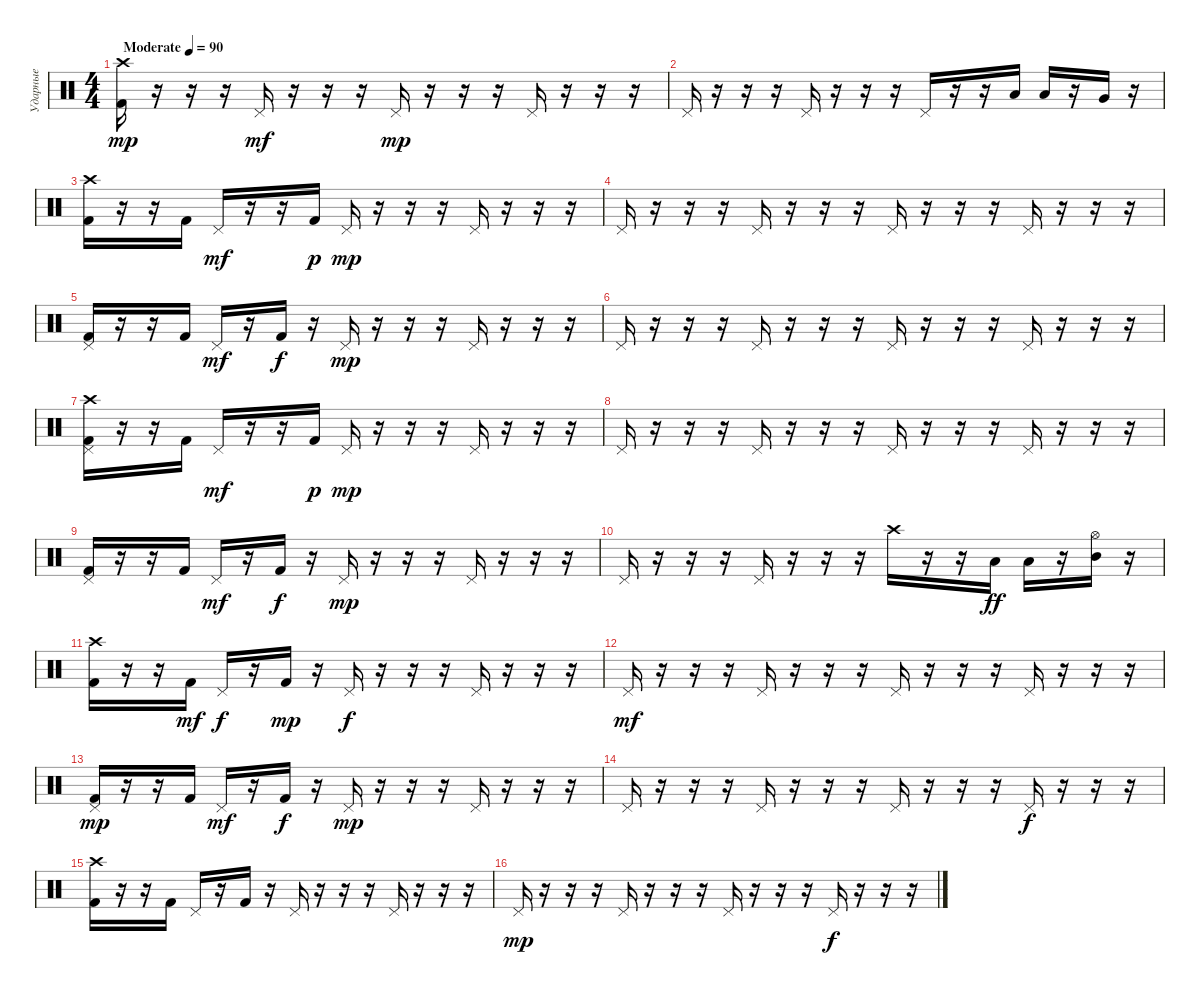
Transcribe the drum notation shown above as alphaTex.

\track ("Ударные" "Ударные") {instrument percussion}
\staff {score}
\articulation defaults
\ts (4 4)
\tempo (90 "Moderate")
\clef neutral
\ks aminor
("Crash high (hit)" "Kick (hit) 2").16{dy mp} r.16 r.16 r.16 "Pedal Hi-Hat (hit)".16{dy mf} r.16 r.16 r.16 "Pedal Hi-Hat (hit)".16{dy mp} r.16 r.16 r.16 "Pedal Hi-Hat (hit)".16 r.16 r.16 r.16 |
"Pedal Hi-Hat (hit)".16 r.16 r.16 r.16 "Pedal Hi-Hat (hit)".16 r.16 r.16 r.16 "Pedal Hi-Hat (hit)".16 r.16 r.16 "Low Tom (hit)".16 "Low Tom (hit)".16 r.16 "Very Low Tom (hit)".16 r.16 |
("Crash high (hit)" "Kick (hit) 2").16 r.16 r.16 "Kick (hit) 2".16 "Pedal Hi-Hat (hit)".16{dy mf} r.16 r.16 "Kick (hit) 2".16{dy p} "Pedal Hi-Hat (hit)".16{dy mp} r.16 r.16 r.16 "Pedal Hi-Hat (hit)".16 r.16 r.16 r.16 |
"Pedal Hi-Hat (hit)".16 r.16 r.16 r.16 "Pedal Hi-Hat (hit)".16 r.16 r.16 r.16 "Pedal Hi-Hat (hit)".16 r.16 r.16 r.16 "Pedal Hi-Hat (hit)".16 r.16 r.16 r.16 |
("Pedal Hi-Hat (hit)" "Kick (hit) 2").16 r.16 r.16 "Kick (hit) 2".16 "Pedal Hi-Hat (hit)".16{dy mf} r.16 "Kick (hit) 2".16{dy f} r.16 "Pedal Hi-Hat (hit)".16{dy mp} r.16 r.16 r.16 "Pedal Hi-Hat (hit)".16 r.16 r.16 r.16 |
"Pedal Hi-Hat (hit)".16 r.16 r.16 r.16 "Pedal Hi-Hat (hit)".16 r.16 r.16 r.16 "Pedal Hi-Hat (hit)".16 r.16 r.16 r.16 "Pedal Hi-Hat (hit)".16 r.16 r.16 r.16 |
("Crash high (hit)" "Pedal Hi-Hat (hit)" "Kick (hit) 2").16 r.16 r.16 "Kick (hit) 2".16 "Pedal Hi-Hat (hit)".16{dy mf} r.16 r.16 "Kick (hit) 2".16{dy p} "Pedal Hi-Hat (hit)".16{dy mp} r.16 r.16 r.16 "Pedal Hi-Hat (hit)".16 r.16 r.16 r.16 |
"Pedal Hi-Hat (hit)".16 r.16 r.16 r.16 "Pedal Hi-Hat (hit)".16 r.16 r.16 r.16 "Pedal Hi-Hat (hit)".16 r.16 r.16 r.16 "Pedal Hi-Hat (hit)".16 r.16 r.16 r.16 |
("Pedal Hi-Hat (hit)" "Kick (hit) 2").16 r.16 r.16 "Kick (hit) 2".16 "Pedal Hi-Hat (hit)".16{dy mf} r.16 "Kick (hit) 2".16{dy f} r.16 "Pedal Hi-Hat (hit)".16{dy mp} r.16 r.16 r.16 "Pedal Hi-Hat (hit)".16 r.16 r.16 r.16 |
"Pedal Hi-Hat (hit)".16 r.16 r.16 r.16 "Pedal Hi-Hat (hit)".16 r.16 r.16 r.16 "Crash high (hit)".16 r.16 r.16 "Low Tom (hit)".16{dy ff} "Low Tom (hit)".16 r.16 ("Hi-Hat (open)" "Mid Tom (hit)").16 r.16 |
("Crash high (hit)" "Kick (hit) 2").16 r.16 r.16 "Kick (hit) 2".16{dy mf} "Pedal Hi-Hat (hit)".16{dy f} r.16 "Kick (hit) 2".16{dy mp} r.16 "Pedal Hi-Hat (hit)".16{dy f} r.16 r.16 r.16 "Pedal Hi-Hat (hit)".16 r.16 r.16 r.16 |
"Pedal Hi-Hat (hit)".16{dy mf} r.16 r.16 r.16 "Pedal Hi-Hat (hit)".16 r.16 r.16 r.16 "Pedal Hi-Hat (hit)".16 r.16 r.16 r.16 "Pedal Hi-Hat (hit)".16 r.16 r.16 r.16 |
("Pedal Hi-Hat (hit)" "Kick (hit) 2").16{dy mp} r.16 r.16 "Kick (hit) 2".16 "Pedal Hi-Hat (hit)".16{dy mf} r.16 "Kick (hit) 2".16{dy f} r.16 "Pedal Hi-Hat (hit)".16{dy mp} r.16 r.16 r.16 "Pedal Hi-Hat (hit)".16 r.16 r.16 r.16 |
"Pedal Hi-Hat (hit)".16 r.16 r.16 r.16 "Pedal Hi-Hat (hit)".16 r.16 r.16 r.16 "Pedal Hi-Hat (hit)".16 r.16 r.16 r.16 "Pedal Hi-Hat (hit)".16{dy f} r.16 r.16 r.16 |
("Crash high (hit)" "Kick (hit) 2").16 r.16 r.16 "Kick (hit) 2".16 "Pedal Hi-Hat (hit)".16 r.16 "Kick (hit) 2".16 r.16 "Pedal Hi-Hat (hit)".16 r.16 r.16 r.16 "Pedal Hi-Hat (hit)".16 r.16 r.16 r.16 |
"Pedal Hi-Hat (hit)".16{dy mp} r.16 r.16 r.16 "Pedal Hi-Hat (hit)".16 r.16 r.16 r.16 "Pedal Hi-Hat (hit)".16 r.16 r.16 r.16 "Pedal Hi-Hat (hit)".16{dy f} r.16 r.16 r.16
